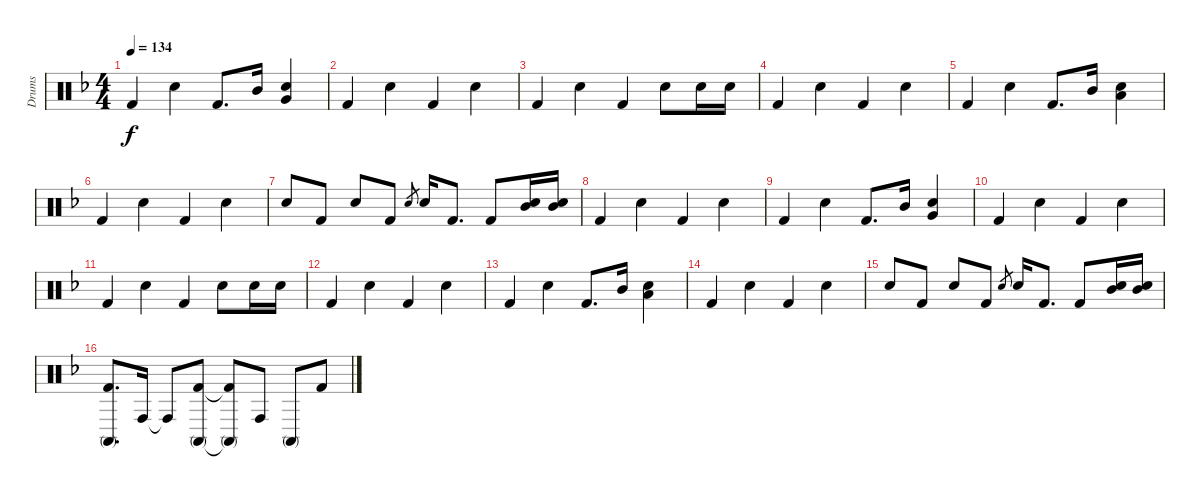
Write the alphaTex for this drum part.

\track ("Drums" "Drums") {instrument percussion}
\staff {score}
\articulation defaults
\ts (4 4)
\tempo 134
\clef neutral
\ks f "Kick (hit) 2".4{dy f} "Snare (hit) 2".4 "Kick (hit) 2".8{d} "Mid Tom (hit)".16
("Snare (hit) 2" "Very Low Tom (hit)").4 |
"Kick (hit) 2".4 "Snare (hit) 2".4 "Kick (hit) 2".4 "Snare (hit) 2".4 |
"Kick (hit) 2".4 "Snare (hit) 2".4 "Kick (hit) 2".4 "Snare (hit) 2".8 "Snare (hit) 2".16 "Snare (hit) 2".16 |
"Kick (hit) 2".4 "Snare (hit) 2".4 "Kick (hit) 2".4 "Snare (hit) 2".4 |
"Kick (hit) 2".4 "Snare (hit) 2".4 "Kick (hit) 2".8{d} "Mid Tom (hit)".16 ("Snare (hit) 2" "Low Floor Tom (hit)").4 |
"Kick (hit) 2".4 "Snare (hit) 2".4 "Kick (hit) 2".4 "Snare (hit) 2".4 |
"Snare (hit) 2".8 "Kick (hit) 2".8 "Snare (hit) 2".8 "Kick (hit) 2".8 "Snare (hit) 2".8{gr} "Snare (hit) 2".16 "Kick (hit) 2".8{d} "Kick (hit) 2".8 ("Snare (hit) 2" "Mid Tom (hit)").16 ("Snare (hit) 2" "Mid Tom (hit)").16 |
"Kick (hit) 2".4 "Snare (hit) 2".4 "Kick (hit) 2".4 "Snare (hit) 2".4 |
"Kick (hit) 2".4 "Snare (hit) 2".4 "Kick (hit) 2".8{d} "Mid Tom (hit)".16 ("Snare (hit) 2" "Very Low Tom (hit)").4 |
"Kick (hit) 2".4 "Snare (hit) 2".4 "Kick (hit) 2".4 "Snare (hit) 2".4 |
"Kick (hit) 2".4 "Snare (hit) 2".4 "Kick (hit) 2".4 "Snare (hit) 2".8 "Snare (hit) 2".16 "Snare (hit) 2".16 |
"Kick (hit) 2".4 "Snare (hit) 2".4 "Kick (hit) 2".4 "Snare (hit) 2".4 |
"Kick (hit) 2".4 "Snare (hit) 2".4 "Kick (hit) 2".8{d} "Mid Tom (hit)".16 ("Snare (hit) 2" "Low Floor Tom (hit)").4 |
"Kick (hit) 2".4 "Snare (hit) 2".4 "Kick (hit) 2".4 "Snare (hit) 2".4 |
"Snare (hit) 2".8 "Kick (hit) 2".8 "Snare (hit) 2".8 "Kick (hit) 2".8 "Snare (hit) 2".8{gr} "Snare (hit) 2".16 "Kick (hit) 2".8{d} "Kick (hit) 2".8 ("Snare (hit) 2" "Mid Tom (hit)").16 ("Snare (hit) 2" "Mid Tom (hit)").16 |
("Kick (hit) 2" "Conga high (mute)").8{d} "Conga high (hit)".16 "Conga high (hit)"{t}.8 ("Kick (hit) 2" "Conga high (mute)").8 ("Kick (hit) 2"{t} "Conga high (mute)"{t}).8 "Conga high (hit)".8 "Conga high (mute)".8 "Kick (hit) 2".8
